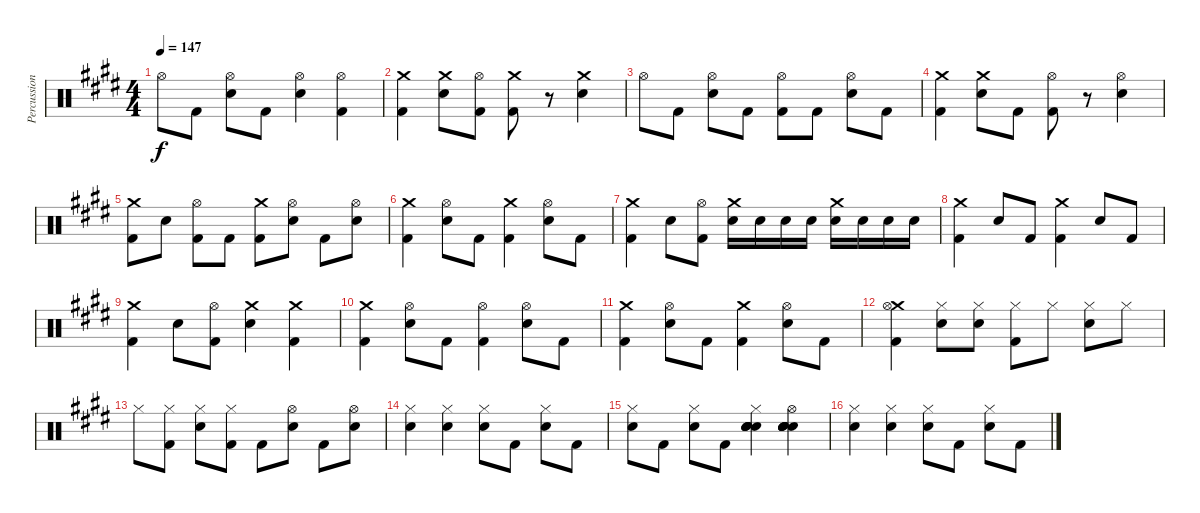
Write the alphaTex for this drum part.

\track ("Percussion" "Percussion") {instrument percussion}
\staff {score}
\articulation defaults
\ts (4 4)
\tempo 147
\clef neutral
\ks e "Hi-Hat (open)".8{dy f} "Kick (hit) 2".8
("Hi-Hat (open)" "Electric Snare (hit)").8 "Kick (hit) 2".8 ("Hi-Hat (open)" "Electric Snare (hit)").4 ("Hi-Hat (open)" "Kick (hit) 2").4 |
("Crash medium (hit)" "Kick (hit) 2").4 ("Crash medium (hit)" "Electric Snare (hit)").8 ("Hi-Hat (open)" "Kick (hit) 2").8 ("Crash medium (hit)" "Kick (hit) 2").8 r.8 ("Crash medium (hit)" "Electric Snare (hit)").4 |
"Hi-Hat (open)".8 "Kick (hit) 2".8 ("Hi-Hat (open)" "Electric Snare (hit)").8 "Kick (hit) 2".8 ("Hi-Hat (open)" "Kick (hit) 2").8 "Kick (hit) 2".8 ("Hi-Hat (open)" "Electric Snare (hit)").8 "Kick (hit) 2".8 |
("Crash medium (hit)" "Kick (hit) 2").4 ("Crash medium (hit)" "Electric Snare (hit)").8 "Kick (hit) 2".8 ("Hi-Hat (open)" "Kick (hit) 2").8 r.8 ("Hi-Hat (open)" "Electric Snare (hit)").4 |
("Crash medium (hit)" "Kick (hit) 2").8 "Electric Snare (hit)".8 ("Hi-Hat (open)" "Kick (hit) 2").8 "Kick (hit) 2".8 ("Crash medium (hit)" "Kick (hit) 2").8 ("Hi-Hat (open)" "Electric Snare (hit)").8 "Kick (hit) 2".8 ("Hi-Hat (open)" "Electric Snare (hit)").8 |
("Crash medium (hit)" "Kick (hit) 2").4 ("Hi-Hat (open)" "Electric Snare (hit)").8 "Kick (hit) 2".8 ("Crash medium (hit)" "Kick (hit) 2").4 ("Hi-Hat (open)" "Electric Snare (hit)").8 "Kick (hit) 2".8 |
("Crash medium (hit)" "Kick (hit) 2").4 "Electric Snare (hit)".8 ("Hi-Hat (open)" "Kick (hit) 2").8 ("Crash medium (hit)" "Electric Snare (hit)").16 "Electric Snare (hit)".16 "Electric Snare (hit)".16 "Electric Snare (hit)".16 ("Crash medium (hit)" "Electric Snare (hit)").16 "Electric Snare (hit)".16 "Electric Snare (hit)".16 "Electric Snare (hit)".16 |
("Crash medium (hit)" "Kick (hit) 2").4 "Electric Snare (hit)".8 "Kick (hit) 2".8 ("Crash medium (hit)" "Kick (hit) 2").4 "Electric Snare (hit)".8 "Kick (hit) 2".8 |
("Crash medium (hit)" "Kick (hit) 2").4 "Electric Snare (hit)".8 ("Hi-Hat (open)" "Kick (hit) 2").8 ("Crash medium (hit)" "Electric Snare (hit)").4 ("Crash medium (hit)" "Kick (hit) 2").4 |
("Crash medium (hit)" "Kick (hit) 2").4 ("Hi-Hat (open)" "Electric Snare (hit)").8 "Kick (hit) 2".8 ("Hi-Hat (open)" "Kick (hit) 2").4 ("Hi-Hat (open)" "Electric Snare (hit)").8 "Kick (hit) 2".8 |
("Crash medium (hit)" "Kick (hit) 2").4 ("Hi-Hat (open)" "Electric Snare (hit)").8 "Kick (hit) 2".8 ("Crash medium (hit)" "Kick (hit) 2").4 ("Hi-Hat (open)" "Electric Snare (hit)").8 "Kick (hit) 2".8 |
("Crash medium (hit)" "Hi-Hat (open)" "Kick (hit) 2").4 ("Hi-Hat (closed)" "Electric Snare (hit)").8 ("Hi-Hat (closed)" "Electric Snare (hit)").8 ("Hi-Hat (closed)" "Kick (hit) 2").8 "Hi-Hat (closed)".8 ("Hi-Hat (closed)" "Electric Snare (hit)").8 "Hi-Hat (closed)".8 |
"Hi-Hat (closed)".8 ("Hi-Hat (closed)" "Kick (hit) 2").8 ("Hi-Hat (closed)" "Electric Snare (hit)").8 ("Hi-Hat (closed)" "Kick (hit) 2").8 "Kick (hit) 2".8 ("Hi-Hat (open)" "Electric Snare (hit)").8 "Kick (hit) 2".8 ("Hi-Hat (open)" "Electric Snare (hit)").8 |
("Hi-Hat (closed)" "Electric Snare (hit)").4 ("Hi-Hat (closed)" "Electric Snare (hit)").4 ("Hi-Hat (closed)" "Electric Snare (hit)").8 "Kick (hit) 2".8 ("Hi-Hat (closed)" "Electric Snare (hit)").8 "Kick (hit) 2".8 |
("Hi-Hat (closed)" "Electric Snare (hit)").8 "Kick (hit) 2".8 ("Hi-Hat (closed)" "Electric Snare (hit)").8 "Kick (hit) 2".8 ("Hand Clap (hit)" "Hand Clap (hit)" "Hi-Hat (closed)" "Hand Clap (hit)" "Electric Snare (hit)" "Hand Clap (hit)").4{bd 60} ("Hand Clap (hit)" "Hand Clap (hit)" "Hi-Hat (open)" "Hand Clap (hit)" "Electric Snare (hit)" "Hand Clap (hit)").4{bd 60} |
("Hi-Hat (closed)" "Electric Snare (hit)").4 ("Hi-Hat (closed)" "Electric Snare (hit)").4 ("Hi-Hat (closed)" "Electric Snare (hit)").8 "Kick (hit) 2".8 ("Hi-Hat (closed)" "Electric Snare (hit)").8 "Kick (hit) 2".8
